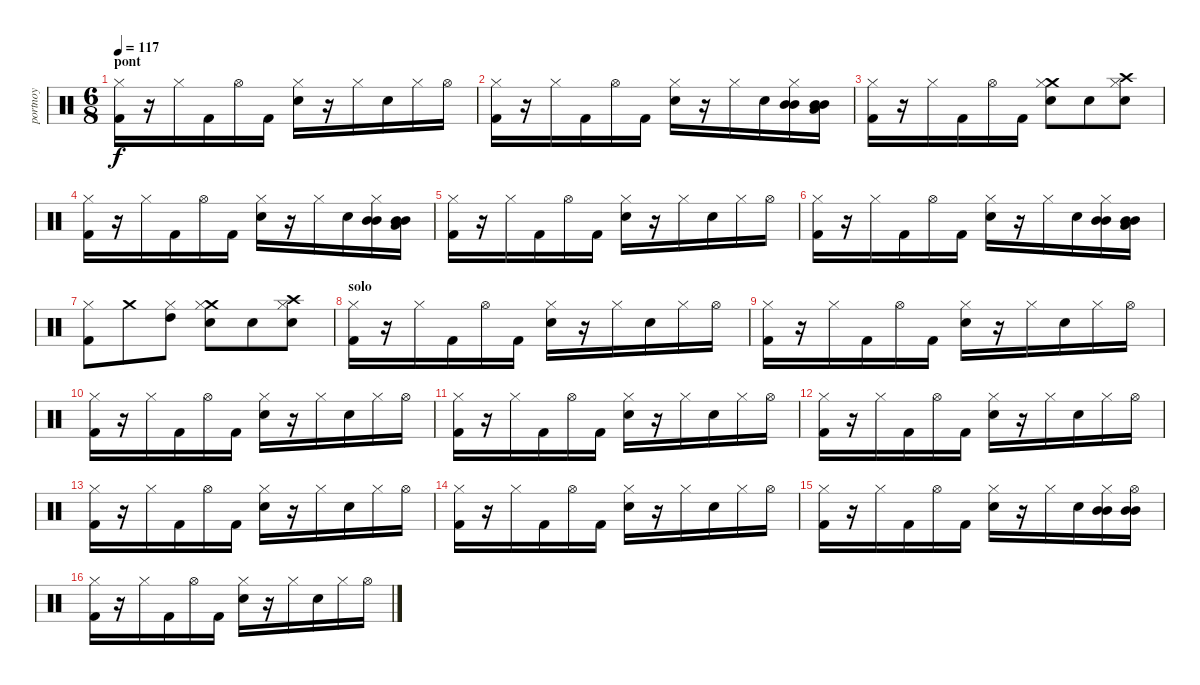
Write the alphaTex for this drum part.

\track ("portnoy" "portnoy") {instrument percussion}
\staff {score}
\articulation defaults
\ts (6 8)
\section ("" "pont")
\tempo 117
\clef neutral
\ks c
("Hi-Hat (closed)" "Kick (hit) 2").16{dy f} r.16 "Hi-Hat (closed)".16 "Kick (hit) 2".16 "Hi-Hat (open)".16 "Kick (hit) 2".16 ("Hi-Hat (closed)" "Electric Snare (hit)").16 r.16 "Hi-Hat (closed)".16 "Electric Snare (hit)".16 "Hi-Hat (closed)".16 "Hi-Hat (open)".16 |
("Hi-Hat (closed)" "Kick (hit) 2").16 r.16 "Hi-Hat (closed)".16 "Kick (hit) 2".16 "Hi-Hat (open)".16 "Kick (hit) 2".16 ("Hi-Hat (closed)" "Electric Snare (hit)").16 r.16 "Hi-Hat (closed)".16 "Electric Snare (hit)".16 ("Mid Tom (hit)" "Mid Tom (hit)" "Hi-Hat (closed)").16 ("Mid Tom (hit)" "Mid Tom (hit)" "Low Tom (hit)").16 |
("Hi-Hat (closed)" "Kick (hit) 2").16 r.16 "Hi-Hat (closed)".16 "Kick (hit) 2".16 "Hi-Hat (open)".16 "Kick (hit) 2".16 ("Crash medium (hit)" "Hi-Hat (closed)" "Electric Snare (hit)").8 "Electric Snare (hit)".8 ("Crash high (hit)" "Hi-Hat (closed)" "Electric Snare (hit)").8 |
("Hi-Hat (closed)" "Kick (hit) 2").16 r.16 "Hi-Hat (closed)".16 "Kick (hit) 2".16 "Hi-Hat (open)".16 "Kick (hit) 2".16 ("Hi-Hat (closed)" "Electric Snare (hit)").16 r.16 "Hi-Hat (closed)".16 "Electric Snare (hit)".16 ("Mid Tom (hit)" "Mid Tom (hit)" "Hi-Hat (closed)").16 ("Mid Tom (hit)" "Mid Tom (hit)" "Low Tom (hit)").16 |
("Hi-Hat (closed)" "Kick (hit) 2").16 r.16 "Hi-Hat (closed)".16 "Kick (hit) 2".16 "Hi-Hat (open)".16 "Kick (hit) 2".16 ("Hi-Hat (closed)" "Electric Snare (hit)").16 r.16 "Hi-Hat (closed)".16 "Electric Snare (hit)".16 "Hi-Hat (closed)".16 "Hi-Hat (open)".16 |
("Hi-Hat (closed)" "Kick (hit) 2").16 r.16 "Hi-Hat (closed)".16 "Kick (hit) 2".16 "Hi-Hat (open)".16 "Kick (hit) 2".16 ("Hi-Hat (closed)" "Electric Snare (hit)").16 r.16 "Hi-Hat (closed)".16 "Electric Snare (hit)".16 ("Mid Tom (hit)" "Mid Tom (hit)" "Hi-Hat (closed)").16 ("Mid Tom (hit)" "Mid Tom (hit)" "Low Tom (hit)").16 |
("Hi-Hat (closed)" "Kick (hit) 2").8 "Crash medium (hit)".8 ("Hi-Hat (closed)" "High Tom (hit)").8 ("Crash medium (hit)" "Hi-Hat (closed)" "Electric Snare (hit)").8 "Electric Snare (hit)".8 ("Crash high (hit)" "Hi-Hat (closed)" "Electric Snare (hit)").8 |
\section ("" "solo")
("Hi-Hat (closed)" "Kick (hit) 2").16 r.16 "Hi-Hat (closed)".16 "Kick (hit) 2".16 "Hi-Hat (open)".16 "Kick (hit) 2".16 ("Hi-Hat (closed)" "Electric Snare (hit)").16 r.16 "Hi-Hat (closed)".16 "Electric Snare (hit)".16 "Hi-Hat (closed)".16 "Hi-Hat (open)".16 |
("Hi-Hat (closed)" "Kick (hit) 2").16 r.16 "Hi-Hat (closed)".16 "Kick (hit) 2".16 "Hi-Hat (open)".16 "Kick (hit) 2".16 ("Hi-Hat (closed)" "Electric Snare (hit)").16 r.16 "Hi-Hat (closed)".16 "Electric Snare (hit)".16 "Hi-Hat (closed)".16 "Hi-Hat (open)".16 |
("Hi-Hat (closed)" "Kick (hit) 2").16 r.16 "Hi-Hat (closed)".16 "Kick (hit) 2".16 "Hi-Hat (open)".16 "Kick (hit) 2".16 ("Hi-Hat (closed)" "Electric Snare (hit)").16 r.16 "Hi-Hat (closed)".16 "Electric Snare (hit)".16 "Hi-Hat (closed)".16 "Hi-Hat (open)".16 |
("Hi-Hat (closed)" "Kick (hit) 2").16 r.16 "Hi-Hat (closed)".16 "Kick (hit) 2".16 "Hi-Hat (open)".16 "Kick (hit) 2".16 ("Hi-Hat (closed)" "Electric Snare (hit)").16 r.16 "Hi-Hat (closed)".16 "Electric Snare (hit)".16 "Hi-Hat (closed)".16 "Hi-Hat (open)".16 |
("Hi-Hat (closed)" "Kick (hit) 2").16 r.16 "Hi-Hat (closed)".16 "Kick (hit) 2".16 "Hi-Hat (open)".16 "Kick (hit) 2".16 ("Hi-Hat (closed)" "Electric Snare (hit)").16 r.16 "Hi-Hat (closed)".16 "Electric Snare (hit)".16 "Hi-Hat (closed)".16 "Hi-Hat (open)".16 |
("Hi-Hat (closed)" "Kick (hit) 2").16 r.16 "Hi-Hat (closed)".16 "Kick (hit) 2".16 "Hi-Hat (open)".16 "Kick (hit) 2".16 ("Hi-Hat (closed)" "Electric Snare (hit)").16 r.16 "Hi-Hat (closed)".16 "Electric Snare (hit)".16 "Hi-Hat (closed)".16 "Hi-Hat (open)".16 |
("Hi-Hat (closed)" "Kick (hit) 2").16 r.16 "Hi-Hat (closed)".16 "Kick (hit) 2".16 "Hi-Hat (open)".16 "Kick (hit) 2".16 ("Hi-Hat (closed)" "Electric Snare (hit)").16 r.16 "Hi-Hat (closed)".16 "Electric Snare (hit)".16 "Hi-Hat (closed)".16 "Hi-Hat (open)".16 |
("Hi-Hat (closed)" "Kick (hit) 2").16 r.16 "Hi-Hat (closed)".16 "Kick (hit) 2".16 "Hi-Hat (open)".16 "Kick (hit) 2".16 ("Hi-Hat (closed)" "Electric Snare (hit)").16 r.16 "Hi-Hat (closed)".16 "Electric Snare (hit)".16 ("Mid Tom (hit)" "Mid Tom (hit)" "Hi-Hat (closed)").16 ("Mid Tom (hit)" "Mid Tom (hit)" "Hi-Hat (open)").16 |
("Hi-Hat (closed)" "Kick (hit) 2").16 r.16 "Hi-Hat (closed)".16 "Kick (hit) 2".16 "Hi-Hat (open)".16 "Kick (hit) 2".16 ("Hi-Hat (closed)" "Electric Snare (hit)").16 r.16 "Hi-Hat (closed)".16 "Electric Snare (hit)".16 "Hi-Hat (closed)".16 "Hi-Hat (open)".16
